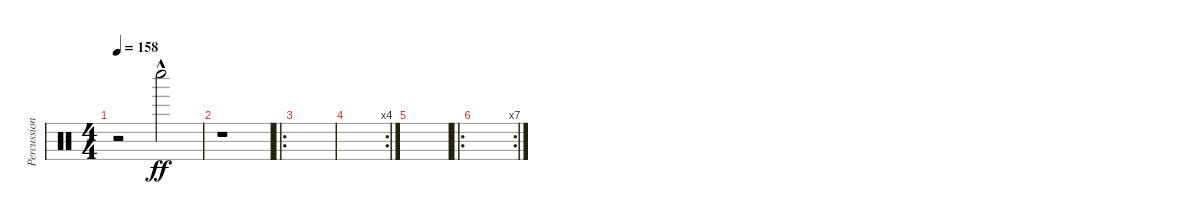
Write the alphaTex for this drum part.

\track ("Percussion" "Percussion") {instrument percussion}
\staff {score}
\articulation defaults
\ts (4 4)
\tempo 158
\clef neutral
\ks c
r.2{dy ff} "Whistle low (hit)"{hac}.2 |
r.1 |
\ro
|
\rc 4
|
|
\ro
\rc 7
